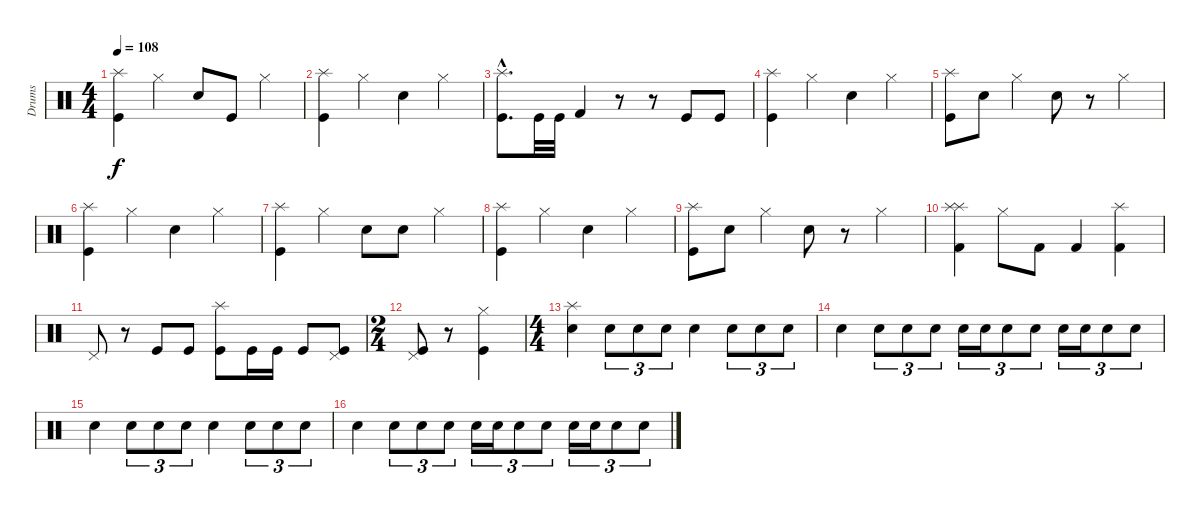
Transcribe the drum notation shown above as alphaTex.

\track ("Drums" "Drums") {instrument percussion}
\staff {score}
\articulation defaults
\ts (4 4)
\tempo 108
\clef neutral
\ks c
("Kick (hit)" "Splash (hit)").4{dy f} "Hi-Hat (closed)".4 "Electric Snare (hit)".8 "Kick (hit)".8 "Hi-Hat (closed)".4 |
("Kick (hit)" "Splash (hit)").4 "Hi-Hat (closed)".4 "Electric Snare (hit)".4 "Hi-Hat (closed)".4 |
("Kick (hit)"{hac} "Splash (hit)"{hac}).8{d} "Kick (hit)".32 "Kick (hit)".32 "Kick (hit) 2".4 r.8 r.8 "Kick (hit)".8 "Kick (hit)".8 |
("Kick (hit)" "Splash (hit)").4 "Hi-Hat (closed)".4 "Electric Snare (hit)".4 "Hi-Hat (closed)".4 |
("Kick (hit)" "Splash (hit)").8 "Electric Snare (hit)".8 "Hi-Hat (closed)".4 "Electric Snare (hit)".8 r.8 "Hi-Hat (closed)".4 |
("Kick (hit)" "Splash (hit)").4 "Hi-Hat (closed)".4 "Electric Snare (hit)".4 "Hi-Hat (closed)".4 |
("Kick (hit)" "Splash (hit)").4 "Hi-Hat (closed)".4 "Electric Snare (hit)".8 "Electric Snare (hit)".8 "Hi-Hat (closed)".4 |
("Kick (hit)" "Splash (hit)").4 "Hi-Hat (closed)".4 "Electric Snare (hit)".4 "Hi-Hat (closed)".4 |
("Kick (hit)" "Splash (hit)").8 "Electric Snare (hit)".8 "Hi-Hat (closed)".4 "Electric Snare (hit)".8 r.8 "Hi-Hat (closed)".4 |
("Kick (hit) 2" "Splash (hit)" "Splash (hit)").4 "Hi-Hat (closed)".8 "Kick (hit) 2".8 "Kick (hit) 2".4 ("Kick (hit) 2" "Splash (hit)").4 |
"Pedal Hi-Hat (hit)".8 r.8 "Kick (hit)".8 "Kick (hit)".8 ("Kick (hit)" "Splash (hit)").8 "Kick (hit)".16 "Kick (hit)".16 "Kick (hit)".8 ("Kick (hit)" "Pedal Hi-Hat (hit)").8 |
\ts (2 4)
("Kick (hit)" "Pedal Hi-Hat (hit)").8 r.8 ("Hi-Hat (closed)" "Kick (hit)").4 |
\ts (4 4)
("Electric Snare (hit)" "Splash (hit)").4{volume 12} "Electric Snare (hit)".8{tu (3 2)} "Electric Snare (hit)".8{tu (3 2)} "Electric Snare (hit)".8{tu (3 2)} "Electric Snare (hit)".4 "Electric Snare (hit)".8{tu (3 2)} "Electric Snare (hit)".8{tu (3 2)} "Electric Snare (hit)".8{tu (3 2)} |
"Electric Snare (hit)".4 "Electric Snare (hit)".8{tu (3 2)} "Electric Snare (hit)".8{tu (3 2)} "Electric Snare (hit)".8{tu (3 2)} "Electric Snare (hit)".16{tu (3 2)} "Electric Snare (hit)".16{tu (3 2)} "Electric Snare (hit)".8{tu (3 2)} "Electric Snare (hit)".8{tu (3 2)} "Electric Snare (hit)".16{tu (3 2)} "Electric Snare (hit)".16{tu (3 2)} "Electric Snare (hit)".8{tu (3 2)} "Electric Snare (hit)".8{tu (3 2)} |
"Electric Snare (hit)".4 "Electric Snare (hit)".8{tu (3 2)} "Electric Snare (hit)".8{tu (3 2)} "Electric Snare (hit)".8{tu (3 2)} "Electric Snare (hit)".4 "Electric Snare (hit)".8{tu (3 2)} "Electric Snare (hit)".8{tu (3 2)} "Electric Snare (hit)".8{tu (3 2)} |
"Electric Snare (hit)".4 "Electric Snare (hit)".8{tu (3 2)} "Electric Snare (hit)".8{tu (3 2)} "Electric Snare (hit)".8{tu (3 2)} "Electric Snare (hit)".16{tu (3 2)} "Electric Snare (hit)".16{tu (3 2)} "Electric Snare (hit)".8{tu (3 2)} "Electric Snare (hit)".8{tu (3 2)} "Electric Snare (hit)".16{tu (3 2)} "Electric Snare (hit)".16{tu (3 2)} "Electric Snare (hit)".8{tu (3 2)} "Electric Snare (hit)".8{tu (3 2)}
